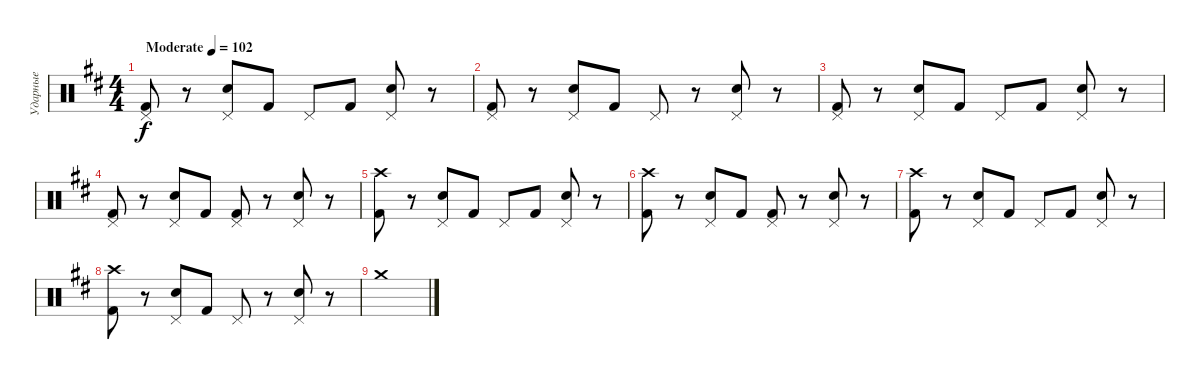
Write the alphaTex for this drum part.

\track ("Ударные" "Ударные") {instrument percussion}
\staff {score}
\articulation defaults
\ts (4 4)
\tempo (102 "Moderate")
\clef neutral
\ks d
("Kick (hit) 2" "Pedal Hi-Hat (hit)").8{dy f} r.8 ("Snare (hit) 2" "Pedal Hi-Hat (hit)").8 "Kick (hit) 2".8 "Pedal Hi-Hat (hit)".8 "Kick (hit) 2".8 ("Snare (hit) 2" "Pedal Hi-Hat (hit)").8 r.8 |
("Kick (hit) 2" "Pedal Hi-Hat (hit)").8 r.8 ("Snare (hit) 2" "Pedal Hi-Hat (hit)").8 "Kick (hit) 2".8 "Pedal Hi-Hat (hit)".8 r.8 ("Snare (hit) 2" "Pedal Hi-Hat (hit)").8 r.8 |
("Kick (hit) 2" "Pedal Hi-Hat (hit)").8 r.8 ("Snare (hit) 2" "Pedal Hi-Hat (hit)").8 "Kick (hit) 2".8 "Pedal Hi-Hat (hit)".8 "Kick (hit) 2".8 ("Snare (hit) 2" "Pedal Hi-Hat (hit)").8 r.8 |
("Kick (hit) 2" "Pedal Hi-Hat (hit)").8 r.8 ("Snare (hit) 2" "Pedal Hi-Hat (hit)").8 "Kick (hit) 2".8 ("Kick (hit) 2" "Pedal Hi-Hat (hit)").8 r.8 ("Snare (hit) 2" "Pedal Hi-Hat (hit)").8 r.8 |
("Kick (hit) 2" "Crash high (hit)").8 r.8 ("Snare (hit) 2" "Pedal Hi-Hat (hit)").8 "Kick (hit) 2".8 "Pedal Hi-Hat (hit)".8 "Kick (hit) 2".8 ("Snare (hit) 2" "Pedal Hi-Hat (hit)").8 r.8 |
("Kick (hit) 2" "Crash high (hit)").8 r.8 ("Snare (hit) 2" "Pedal Hi-Hat (hit)").8 "Kick (hit) 2".8 ("Kick (hit) 2" "Pedal Hi-Hat (hit)").8 r.8 ("Snare (hit) 2" "Pedal Hi-Hat (hit)").8 r.8 |
("Kick (hit) 2" "Crash high (hit)").8 r.8 ("Snare (hit) 2" "Pedal Hi-Hat (hit)").8 "Kick (hit) 2".8 "Pedal Hi-Hat (hit)".8 "Kick (hit) 2".8 ("Snare (hit) 2" "Pedal Hi-Hat (hit)").8 r.8 |
("Kick (hit) 2" "Crash high (hit)").8 r.8 ("Snare (hit) 2" "Pedal Hi-Hat (hit)").8 "Kick (hit) 2".8 "Pedal Hi-Hat (hit)".8 r.8 ("Snare (hit) 2" "Pedal Hi-Hat (hit)").8 r.8 |
"Crash medium (hit)".1
